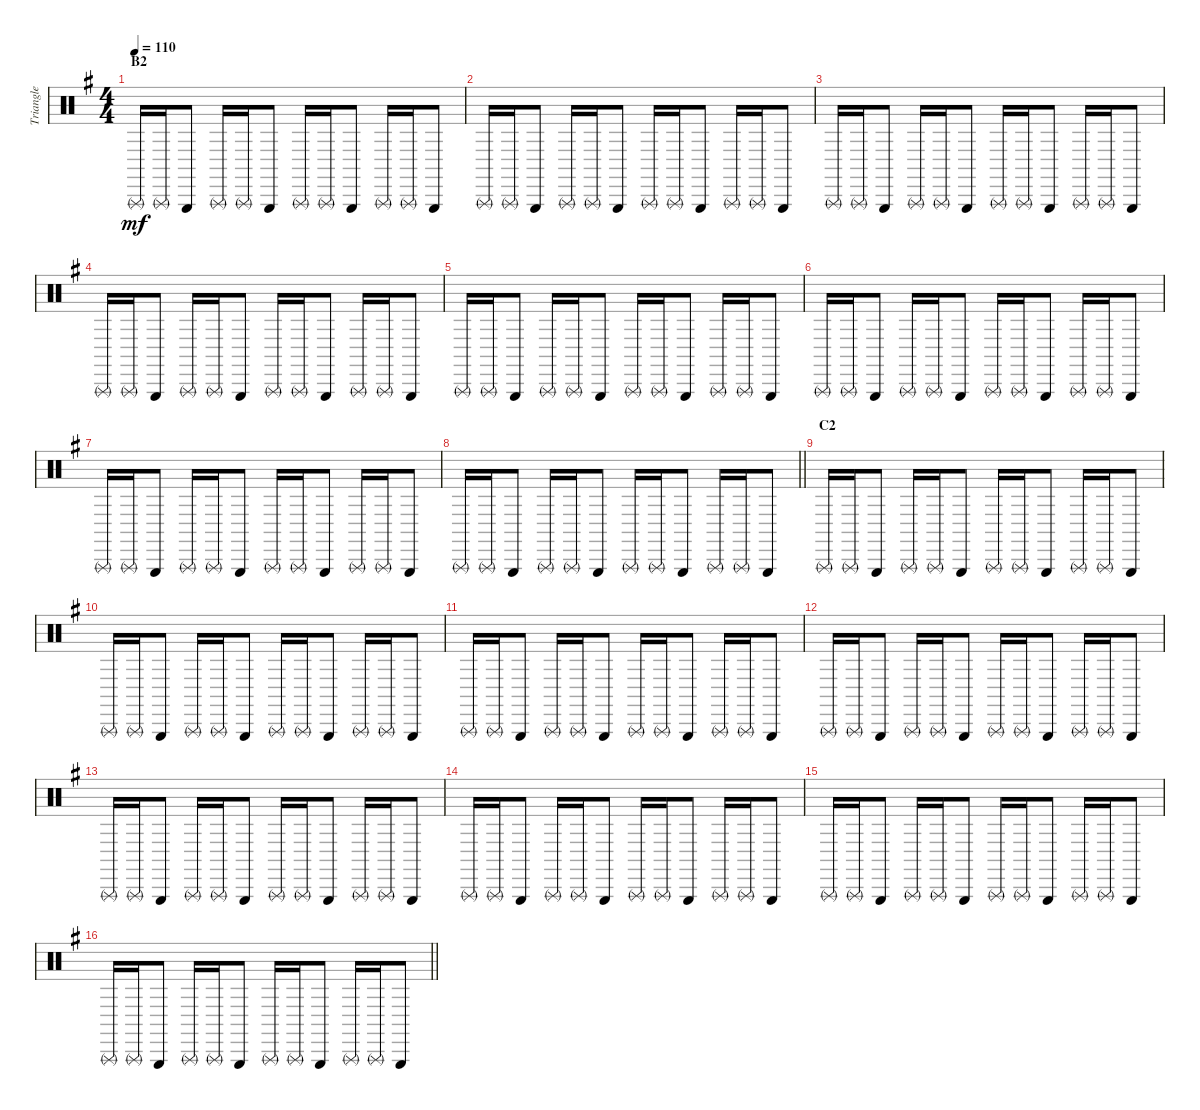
\track ("Triangle" "Triangle") {instrument percussion}
\staff {score}
\articulation defaults
\ts (4 4)
\section ("" "B2")
\tempo 110
\clef neutral
\ks g "Triangle (rnute)".16{dy mf} "Triangle (rnute)".16 "Triangle (hit)".8 "Triangle (rnute)".16 "Triangle (rnute)".16 "Triangle (hit)".8 "Triangle (rnute)".16 "Triangle (rnute)".16 "Triangle (hit)".8 "Triangle (rnute)".16 "Triangle (rnute)".16 "Triangle (hit)".8
|
"Triangle (rnute)".16 "Triangle (rnute)".16 "Triangle (hit)".8 "Triangle (rnute)".16 "Triangle (rnute)".16 "Triangle (hit)".8 "Triangle (rnute)".16 "Triangle (rnute)".16 "Triangle (hit)".8 "Triangle (rnute)".16 "Triangle (rnute)".16 "Triangle (hit)".8 |
"Triangle (rnute)".16 "Triangle (rnute)".16 "Triangle (hit)".8 "Triangle (rnute)".16 "Triangle (rnute)".16 "Triangle (hit)".8 "Triangle (rnute)".16 "Triangle (rnute)".16 "Triangle (hit)".8 "Triangle (rnute)".16 "Triangle (rnute)".16 "Triangle (hit)".8 |
"Triangle (rnute)".16 "Triangle (rnute)".16 "Triangle (hit)".8 "Triangle (rnute)".16 "Triangle (rnute)".16 "Triangle (hit)".8 "Triangle (rnute)".16 "Triangle (rnute)".16 "Triangle (hit)".8 "Triangle (rnute)".16 "Triangle (rnute)".16 "Triangle (hit)".8 |
"Triangle (rnute)".16 "Triangle (rnute)".16 "Triangle (hit)".8 "Triangle (rnute)".16 "Triangle (rnute)".16 "Triangle (hit)".8 "Triangle (rnute)".16 "Triangle (rnute)".16 "Triangle (hit)".8 "Triangle (rnute)".16 "Triangle (rnute)".16 "Triangle (hit)".8 |
"Triangle (rnute)".16 "Triangle (rnute)".16 "Triangle (hit)".8 "Triangle (rnute)".16 "Triangle (rnute)".16 "Triangle (hit)".8 "Triangle (rnute)".16 "Triangle (rnute)".16 "Triangle (hit)".8 "Triangle (rnute)".16 "Triangle (rnute)".16 "Triangle (hit)".8 |
"Triangle (rnute)".16 "Triangle (rnute)".16 "Triangle (hit)".8 "Triangle (rnute)".16 "Triangle (rnute)".16 "Triangle (hit)".8 "Triangle (rnute)".16 "Triangle (rnute)".16 "Triangle (hit)".8 "Triangle (rnute)".16 "Triangle (rnute)".16 "Triangle (hit)".8 |
\barLineRight lightlight "Triangle (rnute)".16 "Triangle (rnute)".16 "Triangle (hit)".8 "Triangle (rnute)".16 "Triangle (rnute)".16 "Triangle (hit)".8 "Triangle (rnute)".16 "Triangle (rnute)".16 "Triangle (hit)".8 "Triangle (rnute)".16 "Triangle (rnute)".16 "Triangle (hit)".8
|
\section ("" "C2")
"Triangle (rnute)".16 "Triangle (rnute)".16 "Triangle (hit)".8 "Triangle (rnute)".16 "Triangle (rnute)".16 "Triangle (hit)".8 "Triangle (rnute)".16 "Triangle (rnute)".16 "Triangle (hit)".8 "Triangle (rnute)".16 "Triangle (rnute)".16 "Triangle (hit)".8 |
"Triangle (rnute)".16 "Triangle (rnute)".16 "Triangle (hit)".8 "Triangle (rnute)".16 "Triangle (rnute)".16 "Triangle (hit)".8 "Triangle (rnute)".16 "Triangle (rnute)".16 "Triangle (hit)".8 "Triangle (rnute)".16 "Triangle (rnute)".16 "Triangle (hit)".8 |
"Triangle (rnute)".16 "Triangle (rnute)".16 "Triangle (hit)".8 "Triangle (rnute)".16 "Triangle (rnute)".16 "Triangle (hit)".8 "Triangle (rnute)".16 "Triangle (rnute)".16 "Triangle (hit)".8 "Triangle (rnute)".16 "Triangle (rnute)".16 "Triangle (hit)".8 |
"Triangle (rnute)".16 "Triangle (rnute)".16 "Triangle (hit)".8 "Triangle (rnute)".16 "Triangle (rnute)".16 "Triangle (hit)".8 "Triangle (rnute)".16 "Triangle (rnute)".16 "Triangle (hit)".8 "Triangle (rnute)".16 "Triangle (rnute)".16 "Triangle (hit)".8 |
"Triangle (rnute)".16 "Triangle (rnute)".16 "Triangle (hit)".8 "Triangle (rnute)".16 "Triangle (rnute)".16 "Triangle (hit)".8 "Triangle (rnute)".16 "Triangle (rnute)".16 "Triangle (hit)".8 "Triangle (rnute)".16 "Triangle (rnute)".16 "Triangle (hit)".8 |
"Triangle (rnute)".16 "Triangle (rnute)".16 "Triangle (hit)".8 "Triangle (rnute)".16 "Triangle (rnute)".16 "Triangle (hit)".8 "Triangle (rnute)".16 "Triangle (rnute)".16 "Triangle (hit)".8 "Triangle (rnute)".16 "Triangle (rnute)".16 "Triangle (hit)".8 |
"Triangle (rnute)".16 "Triangle (rnute)".16 "Triangle (hit)".8 "Triangle (rnute)".16 "Triangle (rnute)".16 "Triangle (hit)".8 "Triangle (rnute)".16 "Triangle (rnute)".16 "Triangle (hit)".8 "Triangle (rnute)".16 "Triangle (rnute)".16 "Triangle (hit)".8 |
\barLineRight lightlight "Triangle (rnute)".16 "Triangle (rnute)".16 "Triangle (hit)".8 "Triangle (rnute)".16 "Triangle (rnute)".16 "Triangle (hit)".8 "Triangle (rnute)".16 "Triangle (rnute)".16 "Triangle (hit)".8 "Triangle (rnute)".16 "Triangle (rnute)".16 "Triangle (hit)".8
